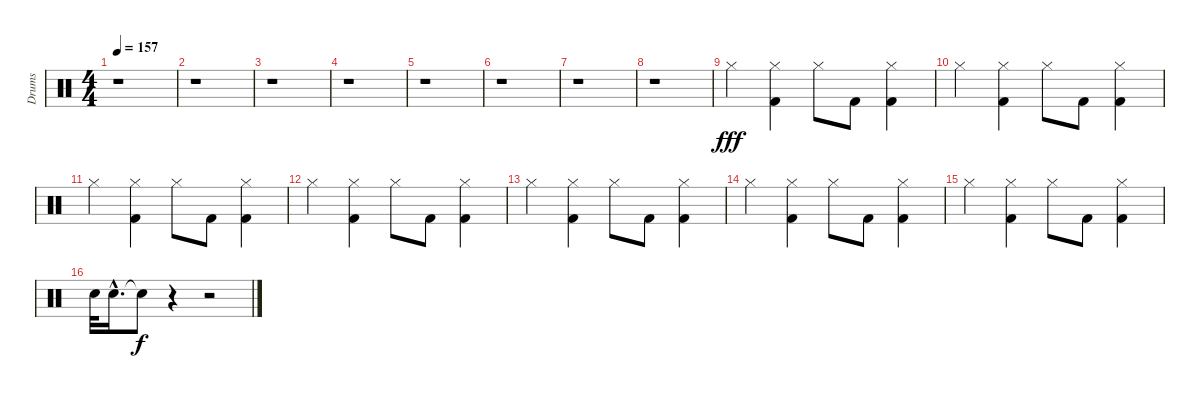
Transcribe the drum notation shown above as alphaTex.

\track ("Drums" "Drums") {instrument percussion}
\staff {score}
\articulation defaults
\ts (4 4)
\tempo 157
\clef neutral
\ks c
r.1{dy fff} |
r.1 |
r.1 |
r.1 |
r.1 |
r.1 |
r.1 |
r.1 |
"Hi-Hat (closed)".4 ("Hi-Hat (closed)" "Kick (hit) 2").4 "Hi-Hat (closed)".8 "Kick (hit) 2".8 ("Hi-Hat (closed)" "Kick (hit) 2").4 |
"Hi-Hat (closed)".4 ("Hi-Hat (closed)" "Kick (hit) 2").4 "Hi-Hat (closed)".8 "Kick (hit) 2".8 ("Hi-Hat (closed)" "Kick (hit) 2").4 |
"Hi-Hat (closed)".4 ("Hi-Hat (closed)" "Kick (hit) 2").4 "Hi-Hat (closed)".8 "Kick (hit) 2".8 ("Hi-Hat (closed)" "Kick (hit) 2").4 |
"Hi-Hat (closed)".4 ("Hi-Hat (closed)" "Kick (hit) 2").4 "Hi-Hat (closed)".8 "Kick (hit) 2".8 ("Hi-Hat (closed)" "Kick (hit) 2").4 |
"Hi-Hat (closed)".4 ("Hi-Hat (closed)" "Kick (hit) 2").4 "Hi-Hat (closed)".8 "Kick (hit) 2".8 ("Hi-Hat (closed)" "Kick (hit) 2").4 |
"Hi-Hat (closed)".4 ("Hi-Hat (closed)" "Kick (hit) 2").4 "Hi-Hat (closed)".8 "Kick (hit) 2".8 ("Hi-Hat (closed)" "Kick (hit) 2").4 |
"Hi-Hat (closed)".4 ("Hi-Hat (closed)" "Kick (hit) 2").4 "Hi-Hat (closed)".8 "Kick (hit) 2".8 ("Hi-Hat (closed)" "Kick (hit) 2").4 |
"Snare (hit) 2".32 "Snare (hit) 2"{hac}.16{d} "Snare (hit)"{t}.8{dy f} r.4 r.2
